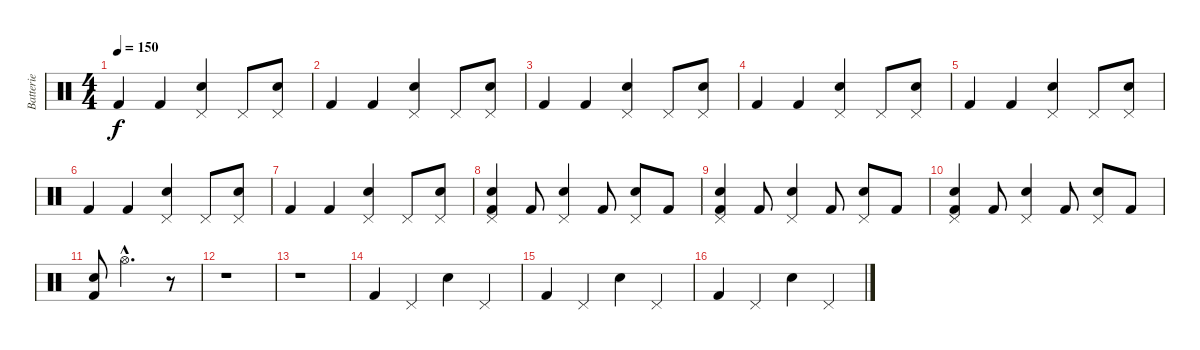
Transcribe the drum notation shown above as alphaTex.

\track ("Batterie" "Batterie") {instrument percussion}
\staff {score}
\articulation defaults
\ts (4 4)
\tempo 150
\clef neutral
\ks c "Kick (hit) 2".4{dy f} "Kick (hit) 2".4
("Pedal Hi-Hat (hit)" "Electric Snare (hit)").4 "Pedal Hi-Hat (hit)".8 ("Pedal Hi-Hat (hit)" "Electric Snare (hit)").8 |
"Kick (hit) 2".4 "Kick (hit) 2".4 ("Pedal Hi-Hat (hit)" "Electric Snare (hit)").4 "Pedal Hi-Hat (hit)".8 ("Pedal Hi-Hat (hit)" "Electric Snare (hit)").8 |
"Kick (hit) 2".4 "Kick (hit) 2".4 ("Pedal Hi-Hat (hit)" "Electric Snare (hit)").4 "Pedal Hi-Hat (hit)".8 ("Pedal Hi-Hat (hit)" "Electric Snare (hit)").8 |
"Kick (hit) 2".4 "Kick (hit) 2".4 ("Pedal Hi-Hat (hit)" "Electric Snare (hit)").4 "Pedal Hi-Hat (hit)".8 ("Pedal Hi-Hat (hit)" "Electric Snare (hit)").8 |
"Kick (hit) 2".4 "Kick (hit) 2".4 ("Pedal Hi-Hat (hit)" "Electric Snare (hit)").4 "Pedal Hi-Hat (hit)".8 ("Pedal Hi-Hat (hit)" "Electric Snare (hit)").8 |
"Kick (hit) 2".4 "Kick (hit) 2".4 ("Pedal Hi-Hat (hit)" "Electric Snare (hit)").4 "Pedal Hi-Hat (hit)".8 ("Pedal Hi-Hat (hit)" "Electric Snare (hit)").8 |
"Kick (hit) 2".4 "Kick (hit) 2".4 ("Pedal Hi-Hat (hit)" "Electric Snare (hit)").4 "Pedal Hi-Hat (hit)".8 ("Pedal Hi-Hat (hit)" "Electric Snare (hit)").8 |
("Pedal Hi-Hat (hit)" "Electric Snare (hit)" "Kick (hit) 2").4 "Kick (hit) 2".8 ("Pedal Hi-Hat (hit)" "Electric Snare (hit)").4 "Kick (hit) 2".8 ("Pedal Hi-Hat (hit)" "Electric Snare (hit)").8 "Kick (hit) 2".8 |
("Pedal Hi-Hat (hit)" "Electric Snare (hit)" "Kick (hit) 2").4 "Kick (hit) 2".8 ("Pedal Hi-Hat (hit)" "Electric Snare (hit)").4 "Kick (hit) 2".8 ("Pedal Hi-Hat (hit)" "Electric Snare (hit)").8 "Kick (hit) 2".8 |
("Pedal Hi-Hat (hit)" "Electric Snare (hit)" "Kick (hit) 2").4 "Kick (hit) 2".8 ("Pedal Hi-Hat (hit)" "Electric Snare (hit)").4 "Kick (hit) 2".8 ("Pedal Hi-Hat (hit)" "Electric Snare (hit)").8 "Kick (hit) 2".8 |
("Electric Snare (hit)" "Kick (hit) 2").8 "Hi-Hat (open)"{hac}.2{d} r.8 |
r.1 |
r.1 |
"Kick (hit) 2".4 "Pedal Hi-Hat (hit)".4 "Electric Snare (hit)".4 "Pedal Hi-Hat (hit)".4 |
"Kick (hit) 2".4 "Pedal Hi-Hat (hit)".4 "Electric Snare (hit)".4 "Pedal Hi-Hat (hit)".4 |
"Kick (hit) 2".4 "Pedal Hi-Hat (hit)".4 "Electric Snare (hit)".4 "Pedal Hi-Hat (hit)".4
